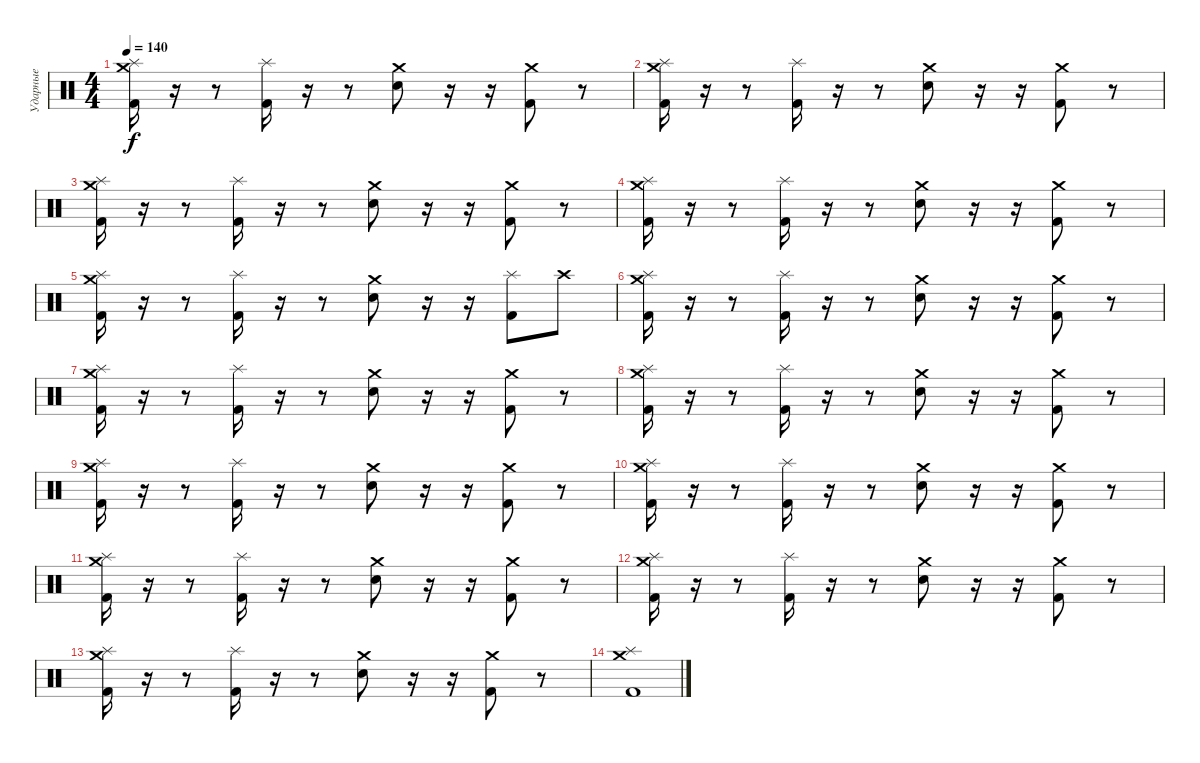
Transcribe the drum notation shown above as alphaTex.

\track ("Ударные" "Ударные") {instrument percussion}
\staff {score}
\articulation defaults
\ts (4 4)
\tempo 140
\clef neutral
\ks c
("Crash medium (hit)" "Splash (hit)" "Kick (hit) 2").16{dy f} r.16 r.8 ("Splash (hit)" "Kick (hit) 2").16 r.16 r.8 ("Crash medium (hit)" "Electric Snare (hit)").8 r.16 r.16 ("Crash medium (hit)" "Kick (hit) 2").8 r.8 |
("Crash medium (hit)" "Splash (hit)" "Kick (hit) 2").16 r.16 r.8 ("Splash (hit)" "Kick (hit) 2").16 r.16 r.8 ("Crash medium (hit)" "Electric Snare (hit)").8 r.16 r.16 ("Crash medium (hit)" "Kick (hit) 2").8 r.8 |
("Crash medium (hit)" "Splash (hit)" "Kick (hit) 2").16 r.16 r.8 ("Splash (hit)" "Kick (hit) 2").16 r.16 r.8 ("Crash medium (hit)" "Electric Snare (hit)").8 r.16 r.16 ("Crash medium (hit)" "Kick (hit) 2").8 r.8 |
("Crash medium (hit)" "Splash (hit)" "Kick (hit) 2").16 r.16 r.8 ("Splash (hit)" "Kick (hit) 2").16 r.16 r.8 ("Crash medium (hit)" "Electric Snare (hit)").8 r.16 r.16 ("Crash medium (hit)" "Kick (hit) 2").8 r.8 |
("Crash medium (hit)" "Splash (hit)" "Kick (hit) 2").16 r.16 r.8 ("Splash (hit)" "Kick (hit) 2").16 r.16 r.8 ("Crash medium (hit)" "Electric Snare (hit)").8 r.16 r.16 ("Splash (hit)" "Kick (hit) 2").8 "Crash high (hit)".8 |
("Crash medium (hit)" "Splash (hit)" "Kick (hit) 2").16 r.16 r.8 ("Splash (hit)" "Kick (hit) 2").16 r.16 r.8 ("Crash medium (hit)" "Electric Snare (hit)").8 r.16 r.16 ("Crash medium (hit)" "Kick (hit) 2").8 r.8 |
("Crash medium (hit)" "Splash (hit)" "Kick (hit) 2").16 r.16 r.8 ("Splash (hit)" "Kick (hit) 2").16 r.16 r.8 ("Crash medium (hit)" "Electric Snare (hit)").8 r.16 r.16 ("Crash medium (hit)" "Kick (hit) 2").8 r.8 |
("Crash medium (hit)" "Splash (hit)" "Kick (hit) 2").16 r.16 r.8 ("Splash (hit)" "Kick (hit) 2").16 r.16 r.8 ("Crash medium (hit)" "Electric Snare (hit)").8 r.16 r.16 ("Crash medium (hit)" "Kick (hit) 2").8 r.8 |
("Crash medium (hit)" "Splash (hit)" "Kick (hit) 2").16 r.16 r.8 ("Splash (hit)" "Kick (hit) 2").16 r.16 r.8 ("Crash medium (hit)" "Electric Snare (hit)").8 r.16 r.16 ("Crash medium (hit)" "Kick (hit) 2").8 r.8 |
("Crash medium (hit)" "Splash (hit)" "Kick (hit) 2").16 r.16 r.8 ("Splash (hit)" "Kick (hit) 2").16 r.16 r.8 ("Crash medium (hit)" "Electric Snare (hit)").8 r.16 r.16 ("Crash medium (hit)" "Kick (hit) 2").8 r.8 |
("Crash medium (hit)" "Splash (hit)" "Kick (hit) 2").16 r.16 r.8 ("Splash (hit)" "Kick (hit) 2").16 r.16 r.8 ("Crash medium (hit)" "Electric Snare (hit)").8 r.16 r.16 ("Crash medium (hit)" "Kick (hit) 2").8 r.8 |
("Crash medium (hit)" "Splash (hit)" "Kick (hit) 2").16 r.16 r.8 ("Splash (hit)" "Kick (hit) 2").16 r.16 r.8 ("Crash medium (hit)" "Electric Snare (hit)").8 r.16 r.16 ("Crash medium (hit)" "Kick (hit) 2").8 r.8 |
("Crash medium (hit)" "Splash (hit)" "Kick (hit) 2").16 r.16 r.8 ("Splash (hit)" "Kick (hit) 2").16 r.16 r.8 ("Crash medium (hit)" "Electric Snare (hit)").8 r.16 r.16 ("Crash medium (hit)" "Kick (hit) 2").8 r.8 |
("Splash (hit)" "Crash medium (hit)" "Kick (hit) 2").1
